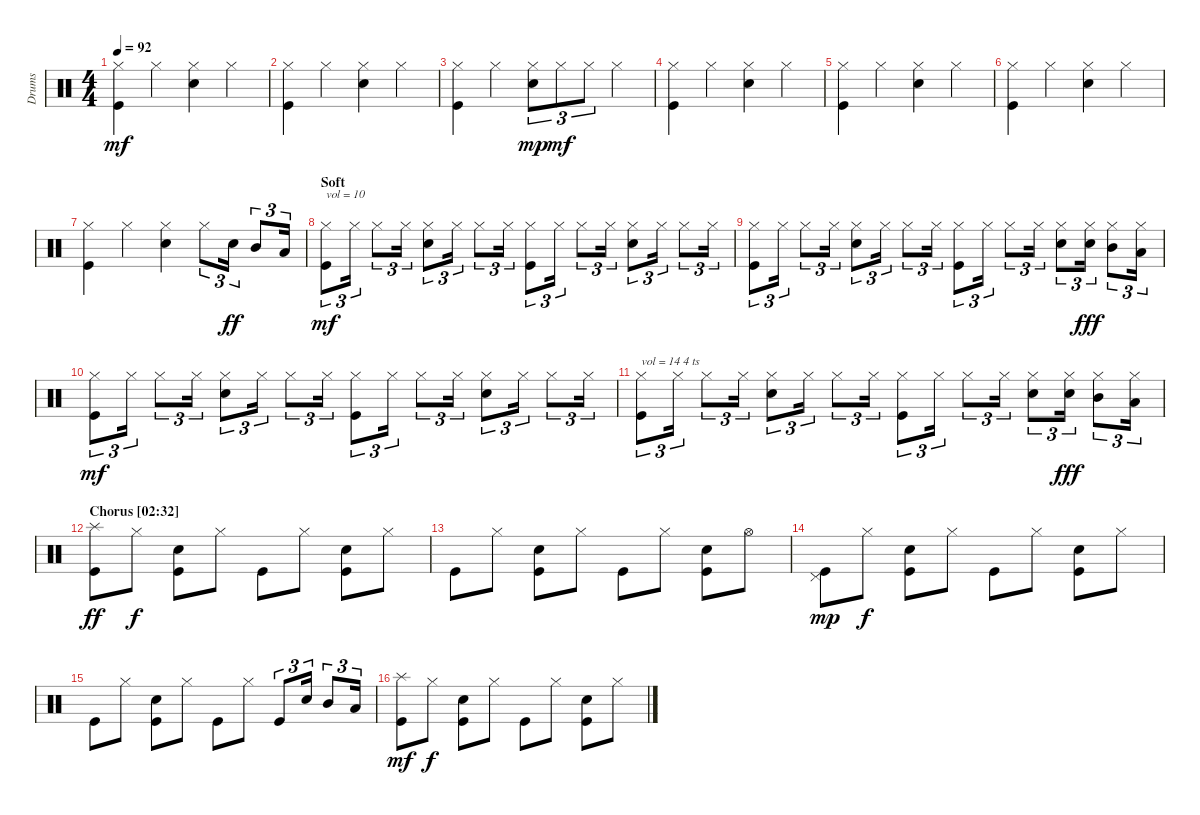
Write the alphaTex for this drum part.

\track ("Drums" "Drums") {instrument percussion}
\staff {score}
\articulation defaults
\ts (4 4)
\tempo 92
\clef neutral
\ks c
("Hi-Hat (closed)" "Kick (hit)").4{dy mf} "Hi-Hat (closed)".4 ("Hi-Hat (closed)" "Electric Snare (hit)").4 "Hi-Hat (closed)".4 |
("Hi-Hat (closed)" "Kick (hit)").4 "Hi-Hat (closed)".4 ("Hi-Hat (closed)" "Electric Snare (hit)").4 "Hi-Hat (closed)".4 |
("Hi-Hat (closed)" "Kick (hit)").4 "Hi-Hat (closed)".4 ("Hi-Hat (closed)" "Electric Snare (hit)").8{tu (3 2) dy mp} "Hi-Hat (closed)".8{tu (3 2) dy mf} "Hi-Hat (closed)".8{tu (3 2)} "Hi-Hat (closed)".4 |
("Hi-Hat (closed)" "Kick (hit)").4 "Hi-Hat (closed)".4 ("Hi-Hat (closed)" "Electric Snare (hit)").4 "Hi-Hat (closed)".4 |
("Hi-Hat (closed)" "Kick (hit)").4 "Hi-Hat (closed)".4 ("Hi-Hat (closed)" "Electric Snare (hit)").4 "Hi-Hat (closed)".4 |
("Hi-Hat (closed)" "Kick (hit)").4 "Hi-Hat (closed)".4 ("Hi-Hat (closed)" "Electric Snare (hit)").4 "Hi-Hat (closed)".4 |
("Hi-Hat (closed)" "Kick (hit)").4 "Hi-Hat (closed)".4 ("Hi-Hat (closed)" "Electric Snare (hit)").4 "Hi-Hat (closed)".8{tu (3 2)} "Electric Snare (hit)".16{tu (3 2) dy ff} "Mid Tom (hit)".8{tu (3 2)} "Low Tom (hit)".16{tu (3 2)} |
\section ("" "Soft")
("Hi-Hat (closed)" "Kick (hit)").8{tu (3 2) txt "vol = 10" dy mf volume 10} "Hi-Hat (closed)".16{tu (3 2)} "Hi-Hat (closed)".8{tu (3 2)} "Hi-Hat (closed)".16{tu (3 2)} ("Hi-Hat (closed)" "Electric Snare (hit)").8{tu (3 2)} "Hi-Hat (closed)".16{tu (3 2)} "Hi-Hat (closed)".8{tu (3 2)} "Hi-Hat (closed)".16{tu (3 2)} ("Hi-Hat (closed)" "Kick (hit)").8{tu (3 2)} "Hi-Hat (closed)".16{tu (3 2)} "Hi-Hat (closed)".8{tu (3 2)} "Hi-Hat (closed)".16{tu (3 2)} ("Hi-Hat (closed)" "Electric Snare (hit)").8{tu (3 2)} "Hi-Hat (closed)".16{tu (3 2)} "Hi-Hat (closed)".8{tu (3 2)} "Hi-Hat (closed)".16{tu (3 2)} |
("Hi-Hat (closed)" "Kick (hit)").8{tu (3 2)} "Hi-Hat (closed)".16{tu (3 2)} "Hi-Hat (closed)".8{tu (3 2)} "Hi-Hat (closed)".16{tu (3 2)} ("Hi-Hat (closed)" "Electric Snare (hit)").8{tu (3 2)} "Hi-Hat (closed)".16{tu (3 2)} "Hi-Hat (closed)".8{tu (3 2)} "Hi-Hat (closed)".16{tu (3 2)} ("Hi-Hat (closed)" "Kick (hit)").8{tu (3 2)} "Hi-Hat (closed)".16{tu (3 2)} "Hi-Hat (closed)".8{tu (3 2)} "Hi-Hat (closed)".16{tu (3 2)} ("Hi-Hat (closed)" "Electric Snare (hit)").8{tu (3 2)} ("Hi-Hat (closed)" "Electric Snare (hit)").16{tu (3 2) dy fff} ("Hi-Hat (closed)" "Mid Tom (hit)").8{tu (3 2)} ("Hi-Hat (closed)" "Low Tom (hit)").16{tu (3 2)} |
("Hi-Hat (closed)" "Kick (hit)").8{tu (3 2) dy mf} "Hi-Hat (closed)".16{tu (3 2)} "Hi-Hat (closed)".8{tu (3 2)} "Hi-Hat (closed)".16{tu (3 2)} ("Hi-Hat (closed)" "Electric Snare (hit)").8{tu (3 2)} "Hi-Hat (closed)".16{tu (3 2)} "Hi-Hat (closed)".8{tu (3 2)} "Hi-Hat (closed)".16{tu (3 2)} ("Hi-Hat (closed)" "Kick (hit)").8{tu (3 2)} "Hi-Hat (closed)".16{tu (3 2)} "Hi-Hat (closed)".8{tu (3 2)} "Hi-Hat (closed)".16{tu (3 2)} ("Hi-Hat (closed)" "Electric Snare (hit)").8{tu (3 2)} "Hi-Hat (closed)".16{tu (3 2)} "Hi-Hat (closed)".8{tu (3 2)} "Hi-Hat (closed)".16{tu (3 2)} |
("Hi-Hat (closed)" "Kick (hit)").8{tu (3 2) txt "vol = 14 4 ts" volume 14} "Hi-Hat (closed)".16{tu (3 2)} "Hi-Hat (closed)".8{tu (3 2)} "Hi-Hat (closed)".16{tu (3 2)} ("Hi-Hat (closed)" "Electric Snare (hit)").8{tu (3 2)} "Hi-Hat (closed)".16{tu (3 2)} "Hi-Hat (closed)".8{tu (3 2)} "Hi-Hat (closed)".16{tu (3 2)} ("Hi-Hat (closed)" "Kick (hit)").8{tu (3 2)} "Hi-Hat (closed)".16{tu (3 2)} "Hi-Hat (closed)".8{tu (3 2)} "Hi-Hat (closed)".16{tu (3 2)} ("Hi-Hat (closed)" "Electric Snare (hit)").8{tu (3 2)} ("Hi-Hat (closed)" "Electric Snare (hit)").16{tu (3 2) dy fff} ("Hi-Hat (closed)" "Mid Tom (hit)").8{tu (3 2)} ("Hi-Hat (closed)" "Low Tom (hit)").16{tu (3 2)} |
\section ("" "Chorus [02:32]")
("Splash (hit)" "Kick (hit)").8{dy ff} "Hi-Hat (closed)".8{dy f} ("Electric Snare (hit)" "Kick (hit)").8 "Hi-Hat (closed)".8 "Kick (hit)".8 "Hi-Hat (closed)".8 ("Electric Snare (hit)" "Kick (hit)").8 "Hi-Hat (closed)".8 |
"Kick (hit)".8 "Hi-Hat (closed)".8 ("Electric Snare (hit)" "Kick (hit)").8 "Hi-Hat (closed)".8 "Kick (hit)".8 "Hi-Hat (closed)".8 ("Electric Snare (hit)" "Kick (hit)").8 "Hi-Hat (open)".8 |
("Pedal Hi-Hat (hit)" "Kick (hit)").8{dy mp} "Hi-Hat (closed)".8{dy f} ("Electric Snare (hit)" "Kick (hit)").8 "Hi-Hat (closed)".8 "Kick (hit)".8 "Hi-Hat (closed)".8 ("Electric Snare (hit)" "Kick (hit)").8 "Hi-Hat (closed)".8 |
"Kick (hit)".8 "Hi-Hat (closed)".8 ("Electric Snare (hit)" "Kick (hit)").8 "Hi-Hat (closed)".8 "Kick (hit)".8 "Hi-Hat (closed)".8 "Kick (hit)".8{tu (3 2)} "Electric Snare (hit)".16{tu (3 2)} "Mid Tom (hit)".8{tu (3 2)} "Low Tom (hit)".16{tu (3 2)} |
("Splash (hit)" "Kick (hit)").8{dy mf} "Hi-Hat (closed)".8{dy f} ("Electric Snare (hit)" "Kick (hit)").8 "Hi-Hat (closed)".8 "Kick (hit)".8 "Hi-Hat (closed)".8 ("Electric Snare (hit)" "Kick (hit)").8 "Hi-Hat (closed)".8
